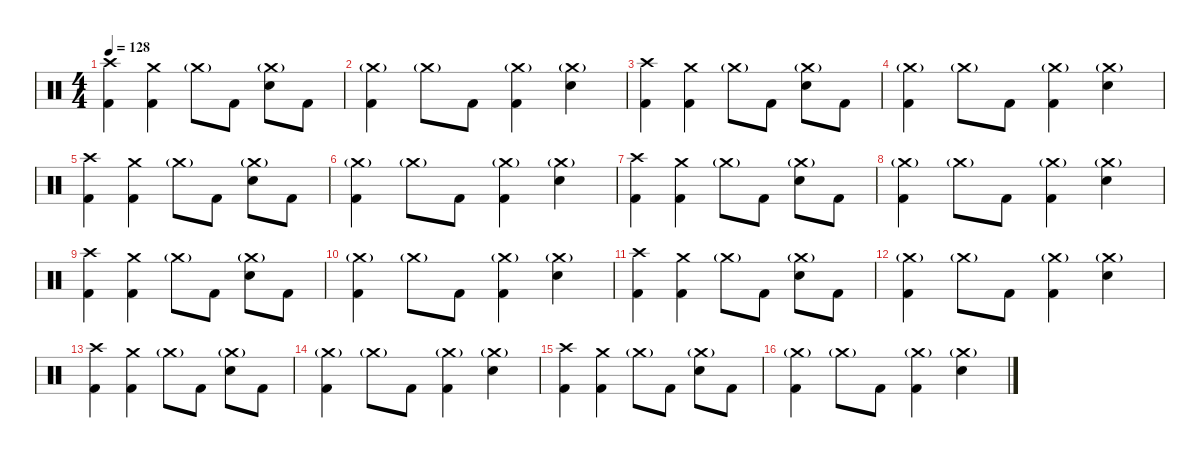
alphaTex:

\defaultSystemsLayout 4
\hideDynamics
\bracketExtendMode nobrackets
\singleTrackTrackNamePolicy hidden
\multiTrackTrackNamePolicy hidden
\otherSystemsTrackNameOrientation horizontal
\track ("Gene Hoglan" "drm.") {instrument percussion}
\staff {score}
\articulation defaults
\ts (4 4)
\tempo 128
\clef neutral
\ks c
("Crash high (hit)" "Kick (hit) 2").4{dy f beam Down} ("Crash medium (hit)" "Kick (hit) 2").4{beam Down} "Crash medium (hit)"{g}.8{dy mf beam Down} "Kick (hit) 2".8{dy f beam Down} ("Crash medium (hit)"{g} "Snare (hit) 2").8{beam Down} "Kick (hit) 2".8{beam Down} |
("Crash medium (hit)"{g} "Kick (hit) 2").4{beam Down} "Crash medium (hit)"{g}.8{dy mf beam Down} "Kick (hit) 2".8{dy f beam Down} ("Crash medium (hit)"{g} "Kick (hit) 2").4{beam Down} ("Crash medium (hit)"{g} "Snare (hit) 2").4{beam Down} |
("Crash high (hit)" "Kick (hit) 2").4{beam Down} ("Crash medium (hit)" "Kick (hit) 2").4{beam Down} "Crash medium (hit)"{g}.8{dy mf beam Down} "Kick (hit) 2".8{dy f beam Down} ("Crash medium (hit)"{g} "Snare (hit) 2").8{beam Down} "Kick (hit) 2".8{beam Down} |
("Crash medium (hit)"{g} "Kick (hit) 2").4{beam Down} "Crash medium (hit)"{g}.8{dy mf beam Down} "Kick (hit) 2".8{dy f beam Down} ("Crash medium (hit)"{g} "Kick (hit) 2").4{beam Down} ("Crash medium (hit)"{g} "Snare (hit) 2").4{beam Down} |
("Crash high (hit)" "Kick (hit) 2").4{beam Down} ("Crash medium (hit)" "Kick (hit) 2").4{beam Down} "Crash medium (hit)"{g}.8{dy mf beam Down} "Kick (hit) 2".8{dy f beam Down} ("Crash medium (hit)"{g} "Snare (hit) 2").8{beam Down} "Kick (hit) 2".8{beam Down} |
("Crash medium (hit)"{g} "Kick (hit) 2").4{beam Down} "Crash medium (hit)"{g}.8{dy mf beam Down} "Kick (hit) 2".8{dy f beam Down} ("Crash medium (hit)"{g} "Kick (hit) 2").4{beam Down} ("Crash medium (hit)"{g} "Snare (hit) 2").4{beam Down} |
("Crash high (hit)" "Kick (hit) 2").4{beam Down} ("Crash medium (hit)" "Kick (hit) 2").4{beam Down} "Crash medium (hit)"{g}.8{dy mf beam Down} "Kick (hit) 2".8{dy f beam Down} ("Crash medium (hit)"{g} "Snare (hit) 2").8{beam Down} "Kick (hit) 2".8{beam Down} |
("Crash medium (hit)"{g} "Kick (hit) 2").4{beam Down} "Crash medium (hit)"{g}.8{dy mf beam Down} "Kick (hit) 2".8{dy f beam Down} ("Crash medium (hit)"{g} "Kick (hit) 2").4{beam Down} ("Crash medium (hit)"{g} "Snare (hit) 2").4{beam Down} |
("Crash high (hit)" "Kick (hit) 2").4{beam Down} ("Crash medium (hit)" "Kick (hit) 2").4{beam Down} "Crash medium (hit)"{g}.8{dy mf beam Down} "Kick (hit) 2".8{dy f beam Down} ("Crash medium (hit)"{g} "Snare (hit) 2").8{beam Down} "Kick (hit) 2".8{beam Down} |
("Crash medium (hit)"{g} "Kick (hit) 2").4{beam Down} "Crash medium (hit)"{g}.8{dy mf beam Down} "Kick (hit) 2".8{dy f beam Down} ("Crash medium (hit)"{g} "Kick (hit) 2").4{beam Down} ("Crash medium (hit)"{g} "Snare (hit) 2").4{beam Down} |
("Crash high (hit)" "Kick (hit) 2").4{beam Down} ("Crash medium (hit)" "Kick (hit) 2").4{beam Down} "Crash medium (hit)"{g}.8{dy mf beam Down} "Kick (hit) 2".8{dy f beam Down} ("Crash medium (hit)"{g} "Snare (hit) 2").8{beam Down} "Kick (hit) 2".8{beam Down} |
("Crash medium (hit)"{g} "Kick (hit) 2").4{beam Down} "Crash medium (hit)"{g}.8{dy mf beam Down} "Kick (hit) 2".8{dy f beam Down} ("Crash medium (hit)"{g} "Kick (hit) 2").4{beam Down} ("Crash medium (hit)"{g} "Snare (hit) 2").4{beam Down} |
("Crash high (hit)" "Kick (hit) 2").4{beam Down} ("Crash medium (hit)" "Kick (hit) 2").4{beam Down} "Crash medium (hit)"{g}.8{dy mf beam Down} "Kick (hit) 2".8{dy f beam Down} ("Crash medium (hit)"{g} "Snare (hit) 2").8{beam Down} "Kick (hit) 2".8{beam Down} |
("Crash medium (hit)"{g} "Kick (hit) 2").4{beam Down} "Crash medium (hit)"{g}.8{dy mf beam Down} "Kick (hit) 2".8{dy f beam Down} ("Crash medium (hit)"{g} "Kick (hit) 2").4{beam Down} ("Crash medium (hit)"{g} "Snare (hit) 2").4{beam Down} |
("Crash high (hit)" "Kick (hit) 2").4{beam Down} ("Crash medium (hit)" "Kick (hit) 2").4{beam Down} "Crash medium (hit)"{g}.8{dy mf beam Down} "Kick (hit) 2".8{dy f beam Down} ("Crash medium (hit)"{g} "Snare (hit) 2").8{beam Down} "Kick (hit) 2".8{beam Down} |
("Crash medium (hit)"{g} "Kick (hit) 2").4{beam Down} "Crash medium (hit)"{g}.8{dy mf beam Down} "Kick (hit) 2".8{dy f beam Down} ("Crash medium (hit)"{g} "Kick (hit) 2").4{beam Down} ("Crash medium (hit)"{g} "Snare (hit) 2").4{beam Down}
